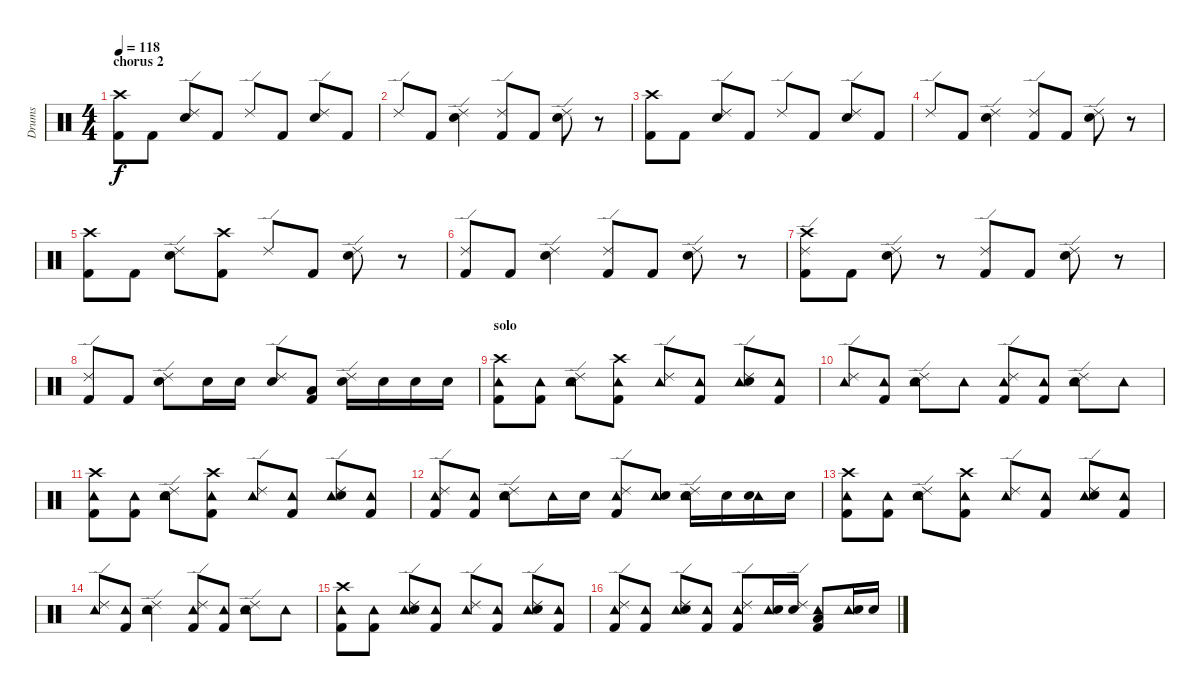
\track ("Drums" "Drums") {instrument percussion}
\staff {score}
\articulation defaults
\ts (4 4)
\section ("" "chorus 2 ")
\tempo 118
\clef neutral
\ks c
("Crash high (hit)" "Kick (hit) 2").8{dy f} "Kick (hit) 2".8 ("Ride (edge) 2" "Electric Snare (hit)").8 "Kick (hit) 2".8 "Ride (edge) 2".8 "Kick (hit) 2".8 ("Ride (edge) 2" "Electric Snare (hit)").8 "Kick (hit) 2".8 |
"Ride (edge) 2".8 "Kick (hit) 2".8 ("Ride (edge) 2" "Electric Snare (hit)").4 ("Ride (edge) 2" "Kick (hit) 2").8 "Kick (hit) 2".8 ("Ride (edge) 2" "Electric Snare (hit)").8 r.8 |
("Crash high (hit)" "Kick (hit) 2").8 "Kick (hit) 2".8 ("Ride (edge) 2" "Electric Snare (hit)").8 "Kick (hit) 2".8 "Ride (edge) 2".8 "Kick (hit) 2".8 ("Ride (edge) 2" "Electric Snare (hit)").8 "Kick (hit) 2".8 |
"Ride (edge) 2".8 "Kick (hit) 2".8 ("Ride (edge) 2" "Electric Snare (hit)").4 ("Ride (edge) 2" "Kick (hit) 2").8 "Kick (hit) 2".8 ("Ride (edge) 2" "Electric Snare (hit)").8 r.8 |
("Crash high (hit)" "Kick (hit) 2").8 "Kick (hit) 2".8 ("Ride (edge) 2" "Electric Snare (hit)").8 ("Crash high (hit)" "Kick (hit) 2").8 "Ride (edge) 2".8 "Kick (hit) 2".8 ("Ride (edge) 2" "Electric Snare (hit)").8 r.8 |
("Ride (edge) 2" "Kick (hit) 2").8 "Kick (hit) 2".8 ("Ride (edge) 2" "Electric Snare (hit)").4 ("Ride (edge) 2" "Kick (hit) 2").8 "Kick (hit) 2".8 ("Ride (edge) 2" "Electric Snare (hit)").8 r.8 |
("Ride (edge) 2" "Crash high (hit)" "Kick (hit) 2").8 "Kick (hit) 2".8 ("Ride (edge) 2" "Electric Snare (hit)").8 r.8 ("Ride (edge) 2" "Kick (hit) 2").8 "Kick (hit) 2".8 ("Ride (edge) 2" "Electric Snare (hit)").8 r.8 |
("Ride (edge) 2" "Kick (hit) 2").8 "Kick (hit) 2".8 ("Ride (edge) 2" "Electric Snare (hit)").8 "Electric Snare (hit)".16 "Electric Snare (hit)".16 ("Ride (edge) 2" "Electric Snare (hit)").8 ("Low Tom (hit)" "Kick (hit) 2").8 ("Ride (edge) 2" "Electric Snare (hit)").16 "Electric Snare (hit)".16 "Electric Snare (hit)".16 "Electric Snare (hit)".16 |
\section ("" "solo")
("Crash high (hit)" "Tambourine (hit)" "Kick (hit) 2").8 ("Tambourine (hit)" "Kick (hit) 2").8 ("Ride (edge) 2" "Tambourine (hit)" "Electric Snare (hit)").8 ("Crash high (hit)" "Tambourine (hit)" "Kick (hit) 2").8 ("Ride (edge) 2" "Tambourine (hit)").8 ("Tambourine (hit)" "Kick (hit) 2").8 ("Ride (edge) 2" "Tambourine (hit)" "Electric Snare (hit)").8 ("Tambourine (hit)" "Kick (hit) 2").8 |
("Ride (edge) 2" "Tambourine (hit)").8 ("Tambourine (hit)" "Kick (hit) 2").8 ("Ride (edge) 2" "Tambourine (hit)" "Electric Snare (hit)").8 "Tambourine (hit)".8 ("Ride (edge) 2" "Tambourine (hit)" "Kick (hit) 2").8 ("Tambourine (hit)" "Kick (hit) 2").8 ("Ride (edge) 2" "Tambourine (hit)" "Electric Snare (hit)").8 "Tambourine (hit)".8 |
("Crash high (hit)" "Tambourine (hit)" "Kick (hit) 2").8 ("Tambourine (hit)" "Kick (hit) 2").8 ("Ride (edge) 2" "Tambourine (hit)" "Electric Snare (hit)").8 ("Crash high (hit)" "Tambourine (hit)" "Kick (hit) 2").8 ("Ride (edge) 2" "Tambourine (hit)").8 ("Tambourine (hit)" "Kick (hit) 2").8 ("Ride (edge) 2" "Tambourine (hit)" "Electric Snare (hit)").8 ("Tambourine (hit)" "Kick (hit) 2").8 |
("Ride (edge) 2" "Tambourine (hit)" "Kick (hit) 2").8 ("Tambourine (hit)" "Kick (hit) 2").8 ("Ride (edge) 2" "Tambourine (hit)" "Electric Snare (hit)").8 "Tambourine (hit)".16 "Electric Snare (hit)".16 ("Ride (edge) 2" "Tambourine (hit)" "Kick (hit) 2").8 ("Tambourine (hit)" "Snare (hit) 2").8 ("Ride (edge) 2" "Tambourine (hit)" "Electric Snare (hit)").16 "Electric Snare (hit)".16 ("Tambourine (hit)" "Electric Snare (hit)").16 "Electric Snare (hit)".16 |
("Crash high (hit)" "Tambourine (hit)" "Kick (hit) 2").8 ("Tambourine (hit)" "Kick (hit) 2").8 ("Ride (edge) 2" "Tambourine (hit)" "Electric Snare (hit)").8 ("Crash high (hit)" "Tambourine (hit)" "Kick (hit) 2").8 ("Ride (edge) 2" "Tambourine (hit)").8 ("Tambourine (hit)" "Kick (hit) 2").8 ("Ride (edge) 2" "Tambourine (hit)" "Electric Snare (hit)").8 ("Tambourine (hit)" "Kick (hit) 2").8 |
("Ride (edge) 2" "Tambourine (hit)").8 ("Tambourine (hit)" "Kick (hit) 2").8 ("Ride (edge) 2" "Tambourine (hit)" "Electric Snare (hit)").4 ("Ride (edge) 2" "Tambourine (hit)" "Kick (hit) 2").8 ("Tambourine (hit)" "Kick (hit) 2").8 ("Ride (edge) 2" "Tambourine (hit)" "Electric Snare (hit)").8 "Tambourine (hit)".8 |
("Crash high (hit)" "Tambourine (hit)" "Kick (hit) 2").8 ("Tambourine (hit)" "Kick (hit) 2").8 ("Ride (edge) 2" "Tambourine (hit)" "Electric Snare (hit)").8 ("Tambourine (hit)" "Kick (hit) 2").8 ("Ride (edge) 2" "Tambourine (hit)").8 ("Tambourine (hit)" "Kick (hit) 2").8 ("Ride (edge) 2" "Tambourine (hit)" "Electric Snare (hit)").8 ("Tambourine (hit)" "Kick (hit) 2").8 |
("Ride (edge) 2" "Tambourine (hit)" "Kick (hit) 2").8 ("Tambourine (hit)" "Kick (hit) 2").8 ("Ride (edge) 2" "Tambourine (hit)" "Electric Snare (hit)").8 ("Tambourine (hit)" "Kick (hit) 2").8 ("Ride (edge) 2" "Tambourine (hit)" "Kick (hit) 2").8 ("Tambourine (hit)" "Electric Snare (hit)").16 ("Ride (edge) 2" "Electric Snare (hit)").16 ("Tambourine (hit)" "Low Tom (hit)" "Kick (hit) 2").8 ("Tambourine (hit)" "Electric Snare (hit)").16 "Electric Snare (hit)".16
